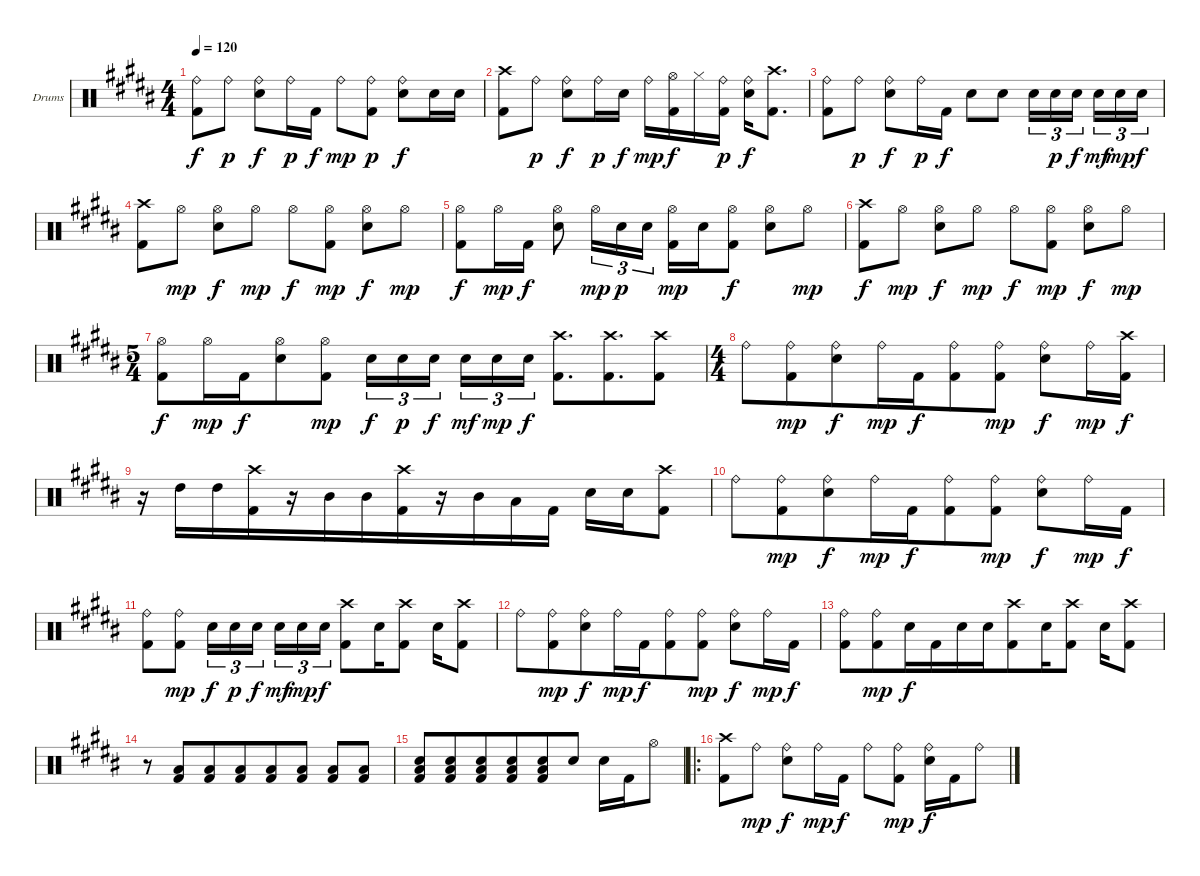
\bracketExtendMode groupsimilarinstruments
\firstSystemTrackNameOrientation horizontal
\otherSystemsTrackNameOrientation horizontal
\track ("Drumkit" "Drums") {instrument percussion}
\staff {score}
\articulation defaults
\ts (4 4)
\tempo 120
\clef neutral
\ks g#minor
("Ride (bell)"{acc forcenatural} "Kick (hit) 2"{acc forcenatural}).8{dy f} "Ride (bell)"{acc forcenatural}.8{dy p} ("Ride (bell)"{acc forcenatural} "Snare (hit) 2"{acc forcenatural}).8{dy f} "Ride (bell)"{acc forcenatural}.16{dy p} "Kick (hit) 2"{acc forcenatural}.16{dy f} "Ride (bell)"{acc forcenatural}.8{dy mp} ("Ride (bell)"{acc forcenatural} "Kick (hit) 2"{acc forcenatural}).8{dy p} ("Ride (bell)"{acc forcenatural} "Snare (hit) 2"{acc forcenatural}).8{dy f} "Snare (hit) 2"{acc forcenatural}.16 "Snare (hit) 2"{acc forcenatural}.16 |
("Crash high (hit)"{acc forcenatural} "Kick (hit) 2"{acc forcenatural}).8 "Ride (bell)"{acc forcenatural}.8{dy p} ("Ride (bell)"{acc forcenatural} "Snare (hit) 2"{acc forcenatural}).8{dy f} "Ride (bell)"{acc forcenatural}.16{dy p} "Snare (hit) 2"{acc forcenatural}.16{dy f} "Ride (bell)"{acc forcenatural}.16{dy mp} ("Hi-Hat (open)"{acc forcenatural} "Kick (hit) 2"{acc forcenatural}).16{dy f} "Hi-Hat (closed)"{acc forcenatural}.16 ("Ride (bell)"{acc forcenatural} "Kick (hit) 2"{acc forcenatural}).16{dy p} ("Ride (bell)"{acc forcenatural} "Snare (hit) 2"{acc forcenatural}).16{dy f} ("Crash high (hit)"{acc forcenatural} "Kick (hit) 2"{acc forcenatural}).8{d} |
("Ride (bell)"{acc forcenatural} "Kick (hit) 2"{acc forcenatural}).8 "Ride (bell)"{acc forcenatural}.8{dy p} ("Ride (bell)"{acc forcenatural} "Snare (hit) 2"{acc forcenatural}).8{dy f} "Ride (bell)"{acc forcenatural}.16{dy p} "Kick (hit) 2"{acc forcenatural}.16{dy f} "Snare (hit) 2"{acc forcenatural}.8 "Snare (hit) 2"{acc forcenatural}.8 "Snare (hit) 2"{acc forcenatural}.16{tu (3 2)} "Snare (hit) 2"{acc forcenatural}.16{tu (3 2) dy p} "Snare (hit) 2"{acc forcenatural}.16{tu (3 2) dy f} "Snare (hit) 2"{acc forcenatural}.16{tu (3 2) dy mf} "Snare (hit) 2"{acc forcenatural}.16{tu (3 2) dy mp} "Snare (hit) 2"{acc forcenatural}.16{tu (3 2) dy f} |
("Crash high (hit)"{acc forcenatural} "Kick (hit) 2"{acc forcenatural}).8 "Hi-Hat (open)"{acc forcenatural}.8{dy mp} ("Hi-Hat (open)"{acc forcenatural} "Snare (hit) 2"{acc forcenatural}).8{dy f} "Hi-Hat (open)"{acc forcenatural}.8{dy mp} "Hi-Hat (open)"{acc forcenatural}.8{dy f} ("Hi-Hat (open)"{acc forcenatural} "Kick (hit) 2"{acc forcenatural}).8{dy mp} ("Hi-Hat (open)"{acc forcenatural} "Snare (hit) 2"{acc forcenatural}).8{dy f} "Hi-Hat (open)"{acc forcenatural}.8{dy mp} |
("Hi-Hat (open)"{acc forcenatural} "Kick (hit) 2"{acc forcenatural}).8{dy f} "Hi-Hat (open)"{acc forcenatural}.16{dy mp} "Kick (hit) 2"{acc forcenatural}.16{dy f} ("Hi-Hat (open)"{acc forcenatural} "Snare (hit) 2"{acc forcenatural}).8 "Hi-Hat (open)"{acc forcenatural}.16{tu (3 2) dy mp} "Snare (hit) 2"{acc forcenatural}.16{tu (3 2) dy p} "Snare (hit) 2"{acc forcenatural}.16{tu (3 2)} ("Hi-Hat (open)"{acc forcenatural} "Kick (hit) 2"{acc forcenatural}).16{dy mp} "Snare (hit) 2"{acc forcenatural}.16 ("Hi-Hat (open)"{acc forcenatural} "Kick (hit) 2"{acc forcenatural}).8{dy f} ("Hi-Hat (open)"{acc forcenatural} "Snare (hit) 2"{acc forcenatural}).8 "Hi-Hat (open)"{acc forcenatural}.8{dy mp} |
("Crash high (hit)"{acc forcenatural} "Kick (hit) 2"{acc forcenatural}).8{dy f} "Hi-Hat (open)"{acc forcenatural}.8{dy mp} ("Hi-Hat (open)"{acc forcenatural} "Snare (hit) 2"{acc forcenatural}).8{dy f} "Hi-Hat (open)"{acc forcenatural}.8{dy mp} "Hi-Hat (open)"{acc forcenatural}.8{dy f} ("Hi-Hat (open)"{acc forcenatural} "Kick (hit) 2"{acc forcenatural}).8{dy mp} ("Hi-Hat (open)"{acc forcenatural} "Snare (hit) 2"{acc forcenatural}).8{dy f} "Hi-Hat (open)"{acc forcenatural}.8{dy mp} |
\ts (5 4)
\beaming (8 6 4)
("Hi-Hat (open)"{acc forcenatural} "Kick (hit) 2"{acc forcenatural}).8{dy f} "Hi-Hat (open)"{acc forcenatural}.16{dy mp} "Kick (hit) 2"{acc forcenatural}.16{dy f} ("Hi-Hat (open)"{acc forcenatural} "Snare (hit) 2"{acc forcenatural}).8 ("Hi-Hat (open)"{acc forcenatural} "Kick (hit) 2"{acc forcenatural}).8{dy mp} "Snare (hit) 2"{acc forcenatural}.16{tu (3 2) dy f} "Snare (hit) 2"{acc forcenatural}.16{tu (3 2) dy p} "Snare (hit) 2"{acc forcenatural}.16{tu (3 2) dy f} "Snare (hit) 2"{acc forcenatural}.16{tu (3 2) dy mf} "Snare (hit) 2"{acc forcenatural}.16{tu (3 2) dy mp} "Snare (hit) 2"{acc forcenatural}.16{tu (3 2) dy f} ("Crash high (hit)"{acc forcenatural} "Kick (hit) 2"{acc forcenatural}).8{d} ("Crash high (hit)"{acc forcenatural} "Kick (hit) 2"{acc forcenatural}).8{d} ("Crash high (hit)"{acc forcenatural} "Kick (hit) 2"{acc forcenatural}).8 |
\ts (4 4)
\beaming (8 6 4)
"Ride (bell)"{acc forcenatural}.8 ("Ride (bell)"{acc forcenatural} "Kick (hit) 2"{acc forcenatural}).8{dy mp} ("Ride (bell)"{acc forcenatural} "Snare (hit) 2"{acc forcenatural}).8{dy f} "Ride (bell)"{acc forcenatural}.16{dy mp} "Kick (hit) 2"{acc forcenatural}.16{dy f} ("Ride (bell)"{acc forcenatural} "Kick (hit) 2"{acc forcenatural}).8 ("Ride (bell)"{acc forcenatural} "Kick (hit) 2"{acc forcenatural}).8{dy mp} ("Ride (bell)"{acc forcenatural} "Snare (hit) 2"{acc forcenatural}).8{dy f} "Ride (bell)"{acc forcenatural}.16{dy mp} ("Crash high (hit)"{acc forcenatural} "Kick (hit) 2"{acc forcenatural}).16{dy f} |
r.16 "High Tom (hit)"{acc forcenatural}.16 "High Tom (hit)"{acc forcenatural}.16 ("Crash high (hit)"{acc forcenatural} "Kick (hit) 2"{acc forcenatural}).16 r.16 "Mid Tom (hit)"{acc forcenatural}.16 "Mid Tom (hit)"{acc forcenatural}.16 ("Crash high (hit)"{acc forcenatural} "Kick (hit) 2"{acc forcenatural}).16 r.16 "Mid Tom (hit)"{acc forcenatural}.16 "Low Tom (hit)"{acc forcenatural}.16 "Kick (hit) 2"{acc forcenatural}.16 "Snare (hit) 2"{acc forcenatural}.16 "Snare (hit) 2"{acc forcenatural}.16 ("Crash high (hit)"{acc forcenatural} "Kick (hit) 2"{acc forcenatural}).8 |
"Ride (bell)"{acc forcenatural}.8 ("Ride (bell)"{acc forcenatural} "Kick (hit) 2"{acc forcenatural}).8{dy mp} ("Ride (bell)"{acc forcenatural} "Snare (hit) 2"{acc forcenatural}).8{dy f} "Ride (bell)"{acc forcenatural}.16{dy mp} "Kick (hit) 2"{acc forcenatural}.16{dy f} ("Ride (bell)"{acc forcenatural} "Kick (hit) 2"{acc forcenatural}).8 ("Ride (bell)"{acc forcenatural} "Kick (hit) 2"{acc forcenatural}).8{dy mp} ("Ride (bell)"{acc forcenatural} "Snare (hit) 2"{acc forcenatural}).8{dy f} "Ride (bell)"{acc forcenatural}.16{dy mp} "Kick (hit) 2"{acc forcenatural}.16{dy f} |
("Ride (bell)"{acc forcenatural} "Kick (hit) 2"{acc forcenatural}).8 ("Ride (bell)"{acc forcenatural} "Kick (hit) 2"{acc forcenatural}).8{dy mp} "Snare (hit) 2"{acc forcenatural}.16{tu (3 2) dy f} "Snare (hit) 2"{acc forcenatural}.16{tu (3 2) dy p} "Snare (hit) 2"{acc forcenatural}.16{tu (3 2) dy f} "Snare (hit) 2"{acc forcenatural}.16{tu (3 2) dy mf} "Snare (hit) 2"{acc forcenatural}.16{tu (3 2) dy mp} "Snare (hit) 2"{acc forcenatural}.16{tu (3 2) dy f} ("Crash high (hit)"{acc forcenatural} "Kick (hit) 2"{acc forcenatural}).8 "Snare (hit) 2"{acc forcenatural}.16 ("Crash high (hit)"{acc forcenatural} "Kick (hit) 2"{acc forcenatural}).8 "Snare (hit) 2"{acc forcenatural}.16 ("Crash high (hit)"{acc forcenatural} "Kick (hit) 2"{acc forcenatural}).8 |
"Ride (bell)"{acc forcenatural}.8 ("Ride (bell)"{acc forcenatural} "Kick (hit) 2"{acc forcenatural}).8{dy mp} ("Ride (bell)"{acc forcenatural} "Snare (hit) 2"{acc forcenatural}).8{dy f} "Ride (bell)"{acc forcenatural}.16{dy mp} "Kick (hit) 2"{acc forcenatural}.16{dy f} ("Ride (bell)"{acc forcenatural} "Kick (hit) 2"{acc forcenatural}).8 ("Ride (bell)"{acc forcenatural} "Kick (hit) 2"{acc forcenatural}).8{dy mp} ("Ride (bell)"{acc forcenatural} "Snare (hit) 2"{acc forcenatural}).8{dy f} "Ride (bell)"{acc forcenatural}.16{dy mp} "Kick (hit) 2"{acc forcenatural}.16{dy f} |
("Ride (bell)"{acc forcenatural} "Kick (hit) 2"{acc forcenatural}).8 ("Ride (bell)"{acc forcenatural} "Kick (hit) 2"{acc forcenatural}).8{dy mp} "Snare (hit) 2"{acc forcenatural}.16{dy f} "Kick (hit) 2"{acc forcenatural}.16 "Snare (hit) 2"{acc forcenatural}.16 "Snare (hit) 2"{acc forcenatural}.16 ("Crash high (hit)"{acc forcenatural} "Kick (hit) 2"{acc forcenatural}).8 "Snare (hit) 2"{acc forcenatural}.16 ("Crash high (hit)"{acc forcenatural} "Kick (hit) 2"{acc forcenatural}).8 "Snare (hit) 2"{acc forcenatural}.16 ("Crash high (hit)"{acc forcenatural} "Kick (hit) 2"{acc forcenatural}).8 |
r.8 ("Low Tom (hit)"{acc forcenatural} "Kick (hit) 2"{acc forcenatural}).8 ("Low Tom (hit)"{acc forcenatural} "Kick (hit) 2"{acc forcenatural}).8 ("Low Tom (hit)"{acc forcenatural} "Kick (hit) 2"{acc forcenatural}).8 ("Low Tom (hit)"{acc forcenatural} "Kick (hit) 2"{acc forcenatural}).8 ("Low Tom (hit)"{acc forcenatural} "Kick (hit) 2"{acc forcenatural}).8 ("Low Tom (hit)"{acc forcenatural} "Kick (hit) 2"{acc forcenatural}).8 ("Low Tom (hit)"{acc forcenatural} "Kick (hit) 2"{acc forcenatural}).8 |
("Snare (hit) 2"{acc forcenatural} "Low Tom (hit)"{acc forcenatural} "Kick (hit) 2"{acc forcenatural}).8 ("Snare (hit) 2"{acc forcenatural} "Low Tom (hit)"{acc forcenatural} "Kick (hit) 2"{acc forcenatural}).8 ("Snare (hit) 2"{acc forcenatural} "Low Tom (hit)"{acc forcenatural} "Kick (hit) 2"{acc forcenatural}).8 ("Snare (hit) 2"{acc forcenatural} "Low Tom (hit)"{acc forcenatural} "Kick (hit) 2"{acc forcenatural}).8 ("Snare (hit) 2"{acc forcenatural} "Low Tom (hit)"{acc forcenatural} "Kick (hit) 2"{acc forcenatural}).8 "Snare (hit) 2"{acc forcenatural}.8 "Snare (hit) 2"{acc forcenatural}.16 "Kick (hit) 2"{acc forcenatural}.16 "Hi-Hat (open)"{acc forcenatural}.8 |
\ro
\beaming (8 2 2 2 2)
("Crash high (hit)"{acc forcenatural} "Kick (hit) 2"{acc forcenatural}).8 "Ride (bell)"{acc forcenatural}.8{dy mp} ("Ride (bell)"{acc forcenatural} "Snare (hit) 2"{acc forcenatural}).8{dy f} "Ride (bell)"{acc forcenatural}.16{dy mp} "Kick (hit) 2"{acc forcenatural}.16{dy f} "Ride (bell)"{acc forcenatural}.8 ("Ride (bell)"{acc forcenatural} "Kick (hit) 2"{acc forcenatural}).8{dy mp} ("Ride (bell)"{acc forcenatural} "Snare (hit) 2"{acc forcenatural}).16{dy f} "Kick (hit) 2"{acc forcenatural}.16 "Ride (bell)"{acc forcenatural}.8
